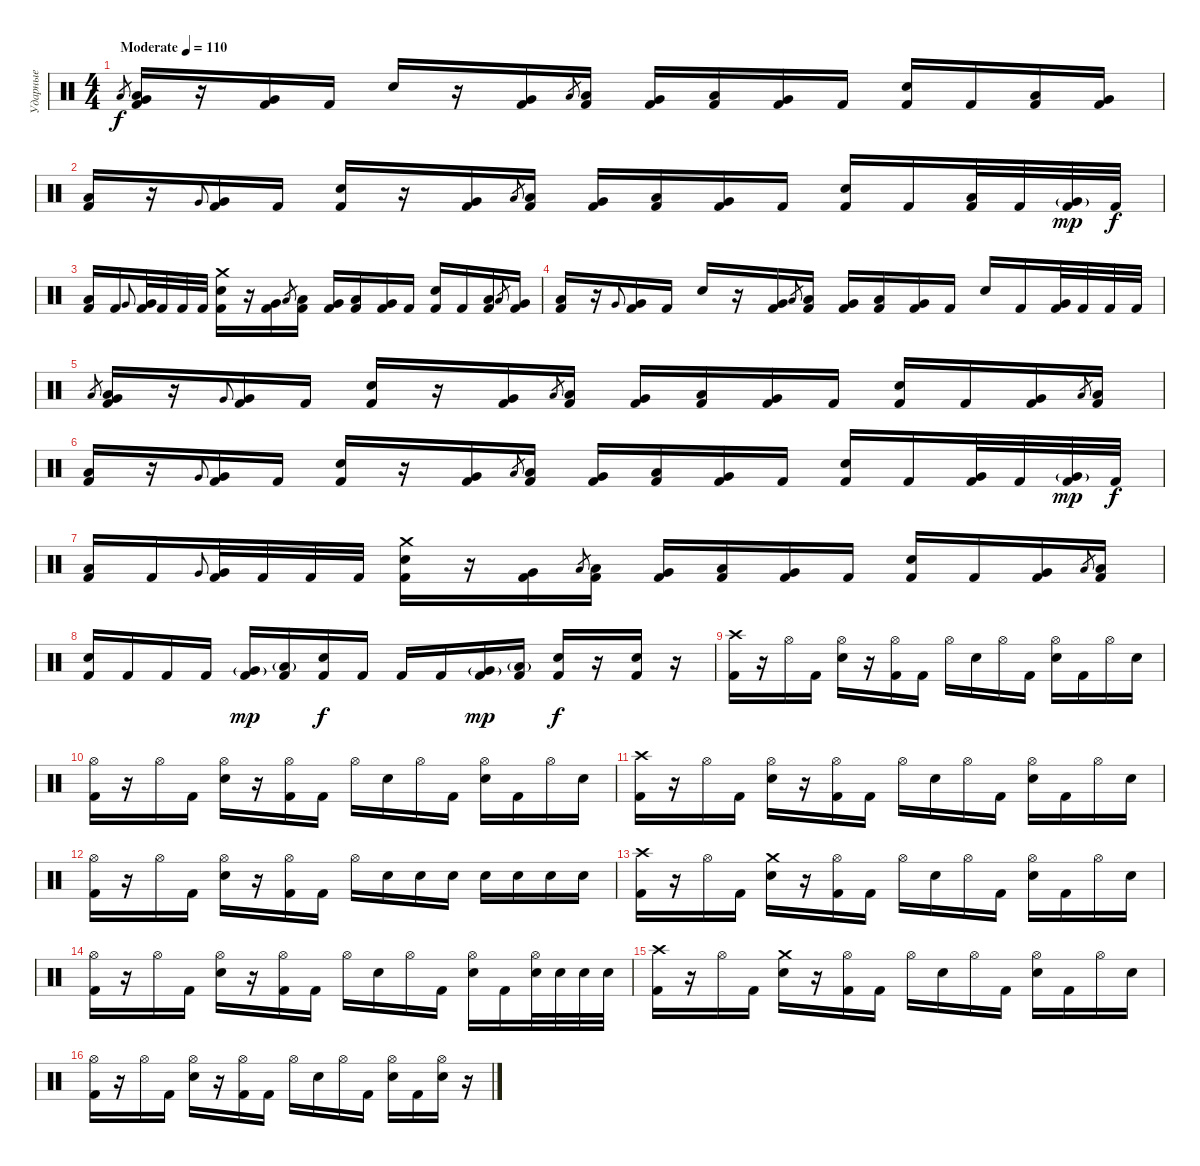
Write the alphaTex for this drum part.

\track ("Ударные" "Ударные") {instrument percussion}
\staff {score}
\articulation defaults
\ts (4 4)
\tempo (110 "Moderate")
\clef neutral
\ks c "Low Floor Tom (hit)".8{gr dy f}
("Low Floor Tom (hit)" "Very Low Tom (hit)" "Kick (hit) 2").16 r.16 ("Very Low Tom (hit)" "Kick (hit) 2").16 "Kick (hit) 2".16 "Electric Snare (hit)".16 r.16 ("Very Low Tom (hit)" "Kick (hit) 2").16 "Low Tom (hit)".8{gr} ("Low Tom (hit)" "Kick (hit) 2").16 ("Very Low Tom (hit)" "Kick (hit) 2").16 ("Low Floor Tom (hit)" "Kick (hit) 2").16 ("Very Low Tom (hit)" "Kick (hit) 2").16 "Kick (hit) 2".16 ("Electric Snare (hit)" "Kick (hit) 2").16 "Kick (hit) 2".16 ("Low Floor Tom (hit)" "Kick (hit) 2").16 ("Very Low Tom (hit)" "Kick (hit) 2").16 |
("Low Floor Tom (hit)" "Kick (hit) 2").16 r.16 "Very Low Tom (hit)".8{gr onbeat} ("Very Low Tom (hit)" "Kick (hit) 2").16 "Kick (hit) 2".16 ("Electric Snare (hit)" "Kick (hit) 2").16 r.16 ("Very Low Tom (hit)" "Kick (hit) 2").16 "Low Tom (hit)".8{gr} ("Low Tom (hit)" "Kick (hit) 2").16 ("Very Low Tom (hit)" "Kick (hit) 2").16 ("Low Floor Tom (hit)" "Kick (hit) 2").16 ("Very Low Tom (hit)" "Kick (hit) 2").16 "Kick (hit) 2".16 ("Electric Snare (hit)" "Kick (hit) 2").16 "Kick (hit) 2".16 ("Low Floor Tom (hit)" "Kick (hit) 2").32 "Kick (hit) 2".32 ("Very Low Tom (hit)"{g} "Kick (hit) 2").32{dy mp} "Kick (hit) 2".32{dy f} |
("Low Floor Tom (hit)" "Kick (hit) 2").16 "Kick (hit) 2".16 "Very Low Tom (hit)".8{gr onbeat} ("Very Low Tom (hit)" "Kick (hit) 2").32 "Kick (hit) 2".32 "Kick (hit) 2".32 "Kick (hit) 2".32 ("Crash medium (hit)" "Electric Snare (hit)" "Kick (hit) 2").16 r.16 ("Very Low Tom (hit)" "Kick (hit) 2").16 "Low Tom (hit)".8{gr} ("Low Tom (hit)" "Kick (hit) 2").16 ("Very Low Tom (hit)" "Kick (hit) 2").16 ("Low Floor Tom (hit)" "Kick (hit) 2").16 ("Very Low Tom (hit)" "Kick (hit) 2").16 "Kick (hit) 2".16 ("Electric Snare (hit)" "Kick (hit) 2").16 "Kick (hit) 2".16 ("Low Floor Tom (hit)" "Kick (hit) 2").16 "Low Floor Tom (hit)".8{gr} ("Very Low Tom (hit)" "Kick (hit) 2").16 |
("Low Floor Tom (hit)" "Kick (hit) 2").16 r.16 "Very Low Tom (hit)".8{gr onbeat} ("Very Low Tom (hit)" "Kick (hit) 2").16 "Kick (hit) 2".16 "Electric Snare (hit)".16 r.16 ("Very Low Tom (hit)" "Kick (hit) 2").16 "Low Tom (hit)".8{gr} ("Low Tom (hit)" "Kick (hit) 2").16 ("Very Low Tom (hit)" "Kick (hit) 2").16 ("Low Floor Tom (hit)" "Kick (hit) 2").16 ("Very Low Tom (hit)" "Kick (hit) 2").16 "Kick (hit) 2".16 "Electric Snare (hit)".16 "Kick (hit) 2".16 ("Very Low Tom (hit)" "Kick (hit) 2").32 "Kick (hit) 2".32 "Kick (hit) 2".32 "Kick (hit) 2".32 |
"Low Floor Tom (hit)".8{gr} ("Low Floor Tom (hit)" "Very Low Tom (hit)" "Kick (hit) 2").16 r.16 "Very Low Tom (hit)".8{gr onbeat} ("Very Low Tom (hit)" "Kick (hit) 2").16 "Kick (hit) 2".16 ("Electric Snare (hit)" "Kick (hit) 2").16 r.16 ("Very Low Tom (hit)" "Kick (hit) 2").16 "Low Tom (hit)".8{gr} ("Low Tom (hit)" "Kick (hit) 2").16 ("Very Low Tom (hit)" "Kick (hit) 2").16 ("Low Floor Tom (hit)" "Kick (hit) 2").16 ("Very Low Tom (hit)" "Kick (hit) 2").16 "Kick (hit) 2".16 ("Electric Snare (hit)" "Kick (hit) 2").16 "Kick (hit) 2".16 ("Very Low Tom (hit)" "Kick (hit) 2").16 "Low Floor Tom (hit)".8{gr} ("Low Floor Tom (hit)" "Kick (hit) 2").16 |
("Low Floor Tom (hit)" "Kick (hit) 2").16 r.16 "Very Low Tom (hit)".8{gr onbeat} ("Very Low Tom (hit)" "Kick (hit) 2").16 "Kick (hit) 2".16 ("Electric Snare (hit)" "Kick (hit) 2").16 r.16 ("Very Low Tom (hit)" "Kick (hit) 2").16 "Low Tom (hit)".8{gr} ("Low Tom (hit)" "Kick (hit) 2").16 ("Very Low Tom (hit)" "Kick (hit) 2").16 ("Low Floor Tom (hit)" "Kick (hit) 2").16 ("Very Low Tom (hit)" "Kick (hit) 2").16 "Kick (hit) 2".16 ("Electric Snare (hit)" "Kick (hit) 2").16 "Kick (hit) 2".16 ("Very Low Tom (hit)" "Kick (hit) 2").32 "Kick (hit) 2".32 ("Very Low Tom (hit)"{g} "Kick (hit) 2").32{dy mp} "Kick (hit) 2".32{dy f} |
("Low Floor Tom (hit)" "Kick (hit) 2").16 "Kick (hit) 2".16 "Very Low Tom (hit)".8{gr onbeat} ("Very Low Tom (hit)" "Kick (hit) 2").32 "Kick (hit) 2".32 "Kick (hit) 2".32 "Kick (hit) 2".32 ("Crash medium (hit)" "Electric Snare (hit)" "Kick (hit) 2").16 r.16 ("Very Low Tom (hit)" "Kick (hit) 2").16 "Low Tom (hit)".8{gr} ("Low Tom (hit)" "Kick (hit) 2").16 ("Very Low Tom (hit)" "Kick (hit) 2").16 ("Low Floor Tom (hit)" "Kick (hit) 2").16 ("Very Low Tom (hit)" "Kick (hit) 2").16 "Kick (hit) 2".16 ("Electric Snare (hit)" "Kick (hit) 2").16 "Kick (hit) 2".16 ("Very Low Tom (hit)" "Kick (hit) 2").16 "Low Floor Tom (hit)".8{gr} ("Low Floor Tom (hit)" "Kick (hit) 2").16 |
("Electric Snare (hit)" "Kick (hit) 2").16 "Kick (hit) 2".16 "Kick (hit) 2".16 "Kick (hit) 2".16 ("Very Low Tom (hit)"{g} "Kick (hit) 2").16{dy mp} ("Low Floor Tom (hit)"{g} "Kick (hit) 2").16 ("Electric Snare (hit)" "Kick (hit) 2").16{dy f} "Kick (hit) 2".16 "Kick (hit) 2".16 "Kick (hit) 2".16 ("Very Low Tom (hit)"{g} "Kick (hit) 2").16{dy mp} ("Low Floor Tom (hit)"{g} "Kick (hit) 2").16 ("Electric Snare (hit)" "Kick (hit) 2").16{dy f} r.16 ("Electric Snare (hit)" "Kick (hit) 2").16 r.16 |
("Crash high (hit)" "Kick (hit) 2").16 r.16 "Hi-Hat (open)".16 "Kick (hit) 2".16 ("Hi-Hat (open)" "Electric Snare (hit)").16 r.16 ("Hi-Hat (open)" "Kick (hit) 2").16 "Kick (hit) 2".16 "Hi-Hat (open)".16 "Electric Snare (hit)".16 "Hi-Hat (open)".16 "Kick (hit) 2".16 ("Hi-Hat (open)" "Electric Snare (hit)").16 "Kick (hit) 2".16 "Hi-Hat (open)".16 "Electric Snare (hit)".16 |
("Hi-Hat (open)" "Kick (hit) 2").16 r.16 "Hi-Hat (open)".16 "Kick (hit) 2".16 ("Hi-Hat (open)" "Electric Snare (hit)").16 r.16 ("Hi-Hat (open)" "Kick (hit) 2").16 "Kick (hit) 2".16 "Hi-Hat (open)".16 "Electric Snare (hit)".16 "Hi-Hat (open)".16 "Kick (hit) 2".16 ("Hi-Hat (open)" "Electric Snare (hit)").16 "Kick (hit) 2".16 "Hi-Hat (open)".16 "Electric Snare (hit)".16 |
("Crash high (hit)" "Kick (hit) 2").16 r.16 "Hi-Hat (open)".16 "Kick (hit) 2".16 ("Hi-Hat (open)" "Electric Snare (hit)").16 r.16 ("Hi-Hat (open)" "Kick (hit) 2").16 "Kick (hit) 2".16 "Hi-Hat (open)".16 "Electric Snare (hit)".16 "Hi-Hat (open)".16 "Kick (hit) 2".16 ("Hi-Hat (open)" "Electric Snare (hit)").16 "Kick (hit) 2".16 "Hi-Hat (open)".16 "Electric Snare (hit)".16 |
("Hi-Hat (open)" "Kick (hit) 2").16 r.16 "Hi-Hat (open)".16 "Kick (hit) 2".16 ("Hi-Hat (open)" "Electric Snare (hit)").16 r.16 ("Hi-Hat (open)" "Kick (hit) 2").16 "Kick (hit) 2".16 "Hi-Hat (open)".16 "Electric Snare (hit)".16 "Electric Snare (hit)".16 "Electric Snare (hit)".16 "Electric Snare (hit)".16 "Electric Snare (hit)".16 "Electric Snare (hit)".16 "Electric Snare (hit)".16 |
("Crash high (hit)" "Kick (hit) 2").16 r.16 "Hi-Hat (open)".16 "Kick (hit) 2".16 ("Crash medium (hit)" "Electric Snare (hit)").16 r.16 ("Hi-Hat (open)" "Kick (hit) 2").16 "Kick (hit) 2".16 "Hi-Hat (open)".16 "Electric Snare (hit)".16 "Hi-Hat (open)".16 "Kick (hit) 2".16 ("Hi-Hat (open)" "Electric Snare (hit)").16 "Kick (hit) 2".16 "Hi-Hat (open)".16 "Electric Snare (hit)".16 |
("Hi-Hat (open)" "Kick (hit) 2").16 r.16 "Hi-Hat (open)".16 "Kick (hit) 2".16 ("Hi-Hat (open)" "Electric Snare (hit)").16 r.16 ("Hi-Hat (open)" "Kick (hit) 2").16 "Kick (hit) 2".16 "Hi-Hat (open)".16 "Electric Snare (hit)".16 "Hi-Hat (open)".16 "Kick (hit) 2".16 ("Hi-Hat (open)" "Electric Snare (hit)").16 "Kick (hit) 2".16 ("Hi-Hat (open)" "Electric Snare (hit)").32 "Electric Snare (hit)".32 "Electric Snare (hit)".32 "Electric Snare (hit)".32 |
("Crash high (hit)" "Kick (hit) 2").16 r.16 "Hi-Hat (open)".16 "Kick (hit) 2".16 ("Crash medium (hit)" "Electric Snare (hit)").16 r.16 ("Hi-Hat (open)" "Kick (hit) 2").16 "Kick (hit) 2".16 "Hi-Hat (open)".16 "Electric Snare (hit)".16 "Hi-Hat (open)".16 "Kick (hit) 2".16 ("Hi-Hat (open)" "Electric Snare (hit)").16 "Kick (hit) 2".16 "Hi-Hat (open)".16 "Electric Snare (hit)".16 |
("Hi-Hat (open)" "Kick (hit) 2").16 r.16 "Hi-Hat (open)".16 "Kick (hit) 2".16 ("Hi-Hat (open)" "Electric Snare (hit)").16 r.16 ("Hi-Hat (open)" "Kick (hit) 2").16 "Kick (hit) 2".16 "Hi-Hat (open)".16 "Electric Snare (hit)".16 "Hi-Hat (open)".16 "Kick (hit) 2".16 ("Hi-Hat (open)" "Electric Snare (hit)").16 "Kick (hit) 2".16 ("Hi-Hat (open)" "Electric Snare (hit)").16 r.16
